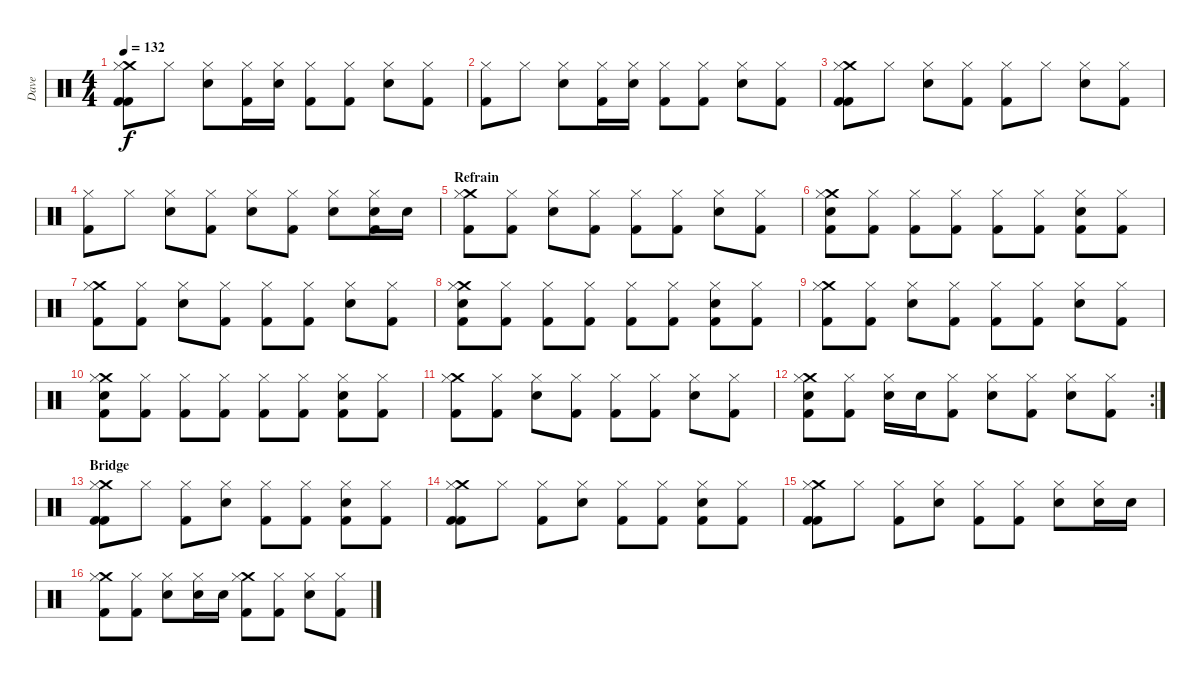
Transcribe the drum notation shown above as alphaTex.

\track ("Dave" "Dave") {instrument percussion}
\staff {score}
\articulation defaults
\ts (4 4)
\tempo 132
\clef neutral
\ks c
("Crash medium (hit)" "Hi-Hat (closed)" "Kick (hit) 2" "Kick (hit) 2").8{dy f} "Hi-Hat (closed)".8 ("Hi-Hat (closed)" "Electric Snare (hit)").8 ("Hi-Hat (closed)" "Kick (hit) 2").16 ("Hi-Hat (closed)" "Electric Snare (hit)").16 ("Hi-Hat (closed)" "Kick (hit) 2").8 ("Hi-Hat (closed)" "Kick (hit) 2").8 ("Hi-Hat (closed)" "Electric Snare (hit)").8 ("Hi-Hat (closed)" "Kick (hit) 2").8 |
("Hi-Hat (closed)" "Kick (hit) 2").8 "Hi-Hat (closed)".8 ("Hi-Hat (closed)" "Electric Snare (hit)").8 ("Hi-Hat (closed)" "Kick (hit) 2").16 ("Hi-Hat (closed)" "Electric Snare (hit)").16 ("Hi-Hat (closed)" "Kick (hit) 2").8 ("Hi-Hat (closed)" "Kick (hit) 2").8 ("Hi-Hat (closed)" "Electric Snare (hit)").8 ("Hi-Hat (closed)" "Kick (hit) 2").8 |
("Crash medium (hit)" "Hi-Hat (closed)" "Kick (hit) 2" "Kick (hit) 2").8 "Hi-Hat (closed)".8 ("Hi-Hat (closed)" "Electric Snare (hit)").8 ("Hi-Hat (closed)" "Kick (hit) 2").8 ("Hi-Hat (closed)" "Kick (hit) 2").8 "Hi-Hat (closed)".8 ("Hi-Hat (closed)" "Electric Snare (hit)").8 ("Hi-Hat (closed)" "Kick (hit) 2").8 |
("Hi-Hat (closed)" "Kick (hit) 2").8 "Hi-Hat (closed)".8 ("Hi-Hat (closed)" "Electric Snare (hit)").8 ("Hi-Hat (closed)" "Kick (hit) 2").8 ("Hi-Hat (closed)" "Electric Snare (hit)").8 ("Hi-Hat (closed)" "Kick (hit) 2").8 ("Hi-Hat (closed)" "Electric Snare (hit)").8 ("Hi-Hat (closed)" "Kick (hit) 2" "Electric Snare (hit)").16 "Electric Snare (hit)".16 |
\section ("" "Refrain")
("Crash medium (hit)" "Hi-Hat (closed)" "Kick (hit) 2").8 ("Hi-Hat (closed)" "Kick (hit) 2").8 ("Hi-Hat (closed)" "Electric Snare (hit)").8 ("Hi-Hat (closed)" "Kick (hit) 2").8 ("Hi-Hat (closed)" "Kick (hit) 2").8 ("Hi-Hat (closed)" "Kick (hit) 2").8 ("Hi-Hat (closed)" "Electric Snare (hit)").8 ("Hi-Hat (closed)" "Kick (hit) 2").8 |
("Crash medium (hit)" "Hi-Hat (closed)" "Kick (hit) 2" "Electric Snare (hit)").8 ("Hi-Hat (closed)" "Kick (hit) 2").8 ("Hi-Hat (closed)" "Kick (hit) 2").8 ("Hi-Hat (closed)" "Kick (hit) 2").8 ("Hi-Hat (closed)" "Kick (hit) 2").8 ("Hi-Hat (closed)" "Kick (hit) 2").8 ("Hi-Hat (closed)" "Kick (hit) 2" "Electric Snare (hit)").8 ("Hi-Hat (closed)" "Kick (hit) 2").8 |
("Crash medium (hit)" "Hi-Hat (closed)" "Kick (hit) 2").8 ("Hi-Hat (closed)" "Kick (hit) 2").8 ("Hi-Hat (closed)" "Electric Snare (hit)").8 ("Hi-Hat (closed)" "Kick (hit) 2").8 ("Hi-Hat (closed)" "Kick (hit) 2").8 ("Hi-Hat (closed)" "Kick (hit) 2").8 ("Hi-Hat (closed)" "Electric Snare (hit)").8 ("Hi-Hat (closed)" "Kick (hit) 2").8 |
("Crash medium (hit)" "Hi-Hat (closed)" "Kick (hit) 2" "Electric Snare (hit)").8 ("Hi-Hat (closed)" "Kick (hit) 2").8 ("Hi-Hat (closed)" "Kick (hit) 2").8 ("Hi-Hat (closed)" "Kick (hit) 2").8 ("Hi-Hat (closed)" "Kick (hit) 2").8 ("Hi-Hat (closed)" "Kick (hit) 2").8 ("Hi-Hat (closed)" "Kick (hit) 2" "Electric Snare (hit)").8 ("Hi-Hat (closed)" "Kick (hit) 2").8 |
("Crash medium (hit)" "Hi-Hat (closed)" "Kick (hit) 2").8 ("Hi-Hat (closed)" "Kick (hit) 2").8 ("Hi-Hat (closed)" "Electric Snare (hit)").8 ("Hi-Hat (closed)" "Kick (hit) 2").8 ("Hi-Hat (closed)" "Kick (hit) 2").8 ("Hi-Hat (closed)" "Kick (hit) 2").8 ("Hi-Hat (closed)" "Electric Snare (hit)").8 ("Hi-Hat (closed)" "Kick (hit) 2").8 |
("Crash medium (hit)" "Hi-Hat (closed)" "Kick (hit) 2" "Electric Snare (hit)").8 ("Hi-Hat (closed)" "Kick (hit) 2").8 ("Hi-Hat (closed)" "Kick (hit) 2").8 ("Hi-Hat (closed)" "Kick (hit) 2").8 ("Hi-Hat (closed)" "Kick (hit) 2").8 ("Hi-Hat (closed)" "Kick (hit) 2").8 ("Hi-Hat (closed)" "Kick (hit) 2" "Electric Snare (hit)").8 ("Hi-Hat (closed)" "Kick (hit) 2").8 |
("Crash medium (hit)" "Hi-Hat (closed)" "Kick (hit) 2").8 ("Hi-Hat (closed)" "Kick (hit) 2").8 ("Hi-Hat (closed)" "Electric Snare (hit)").8 ("Hi-Hat (closed)" "Kick (hit) 2").8 ("Hi-Hat (closed)" "Kick (hit) 2").8 ("Hi-Hat (closed)" "Kick (hit) 2").8 ("Hi-Hat (closed)" "Electric Snare (hit)").8 ("Hi-Hat (closed)" "Kick (hit) 2").8 |
\rc 2
("Crash medium (hit)" "Hi-Hat (closed)" "Kick (hit) 2" "Electric Snare (hit)").8 ("Hi-Hat (closed)" "Kick (hit) 2").8 ("Hi-Hat (closed)" "Electric Snare (hit)").16 "Electric Snare (hit)".16 ("Hi-Hat (closed)" "Kick (hit) 2").8 ("Hi-Hat (closed)" "Electric Snare (hit)").8 ("Hi-Hat (closed)" "Kick (hit) 2").8 ("Hi-Hat (closed)" "Electric Snare (hit)").8 ("Hi-Hat (closed)" "Kick (hit) 2").8 |
\section ("" "Bridge")
("Crash medium (hit)" "Hi-Hat (closed)" "Kick (hit) 2" "Kick (hit) 2").8 "Hi-Hat (closed)".8 ("Hi-Hat (closed)" "Kick (hit) 2").8 ("Hi-Hat (closed)" "Electric Snare (hit)").8 ("Hi-Hat (closed)" "Kick (hit) 2").8 ("Hi-Hat (closed)" "Kick (hit) 2").8 ("Hi-Hat (closed)" "Kick (hit) 2" "Electric Snare (hit)").8 ("Hi-Hat (closed)" "Kick (hit) 2").8 |
("Crash medium (hit)" "Hi-Hat (closed)" "Kick (hit) 2" "Kick (hit) 2").8 "Hi-Hat (closed)".8 ("Hi-Hat (closed)" "Kick (hit) 2").8 ("Hi-Hat (closed)" "Electric Snare (hit)").8 ("Hi-Hat (closed)" "Kick (hit) 2").8 ("Hi-Hat (closed)" "Kick (hit) 2").8 ("Hi-Hat (closed)" "Kick (hit) 2" "Electric Snare (hit)").8 ("Hi-Hat (closed)" "Kick (hit) 2").8 |
("Crash medium (hit)" "Hi-Hat (closed)" "Kick (hit) 2" "Kick (hit) 2").8 "Hi-Hat (closed)".8 ("Hi-Hat (closed)" "Kick (hit) 2").8 ("Hi-Hat (closed)" "Electric Snare (hit)").8 ("Hi-Hat (closed)" "Kick (hit) 2").8 ("Hi-Hat (closed)" "Kick (hit) 2").8 ("Hi-Hat (closed)" "Electric Snare (hit)").8 ("Hi-Hat (closed)" "Electric Snare (hit)").16 "Electric Snare (hit)".16 |
("Crash medium (hit)" "Hi-Hat (closed)" "Kick (hit) 2").8 ("Hi-Hat (closed)" "Kick (hit) 2").8 ("Hi-Hat (closed)" "Electric Snare (hit)").8 ("Hi-Hat (closed)" "Electric Snare (hit)").16 "Electric Snare (hit)".16 ("Crash medium (hit)" "Hi-Hat (closed)" "Kick (hit) 2").8 ("Hi-Hat (closed)" "Kick (hit) 2").8 ("Hi-Hat (closed)" "Electric Snare (hit)").8 ("Hi-Hat (closed)" "Kick (hit) 2").8
